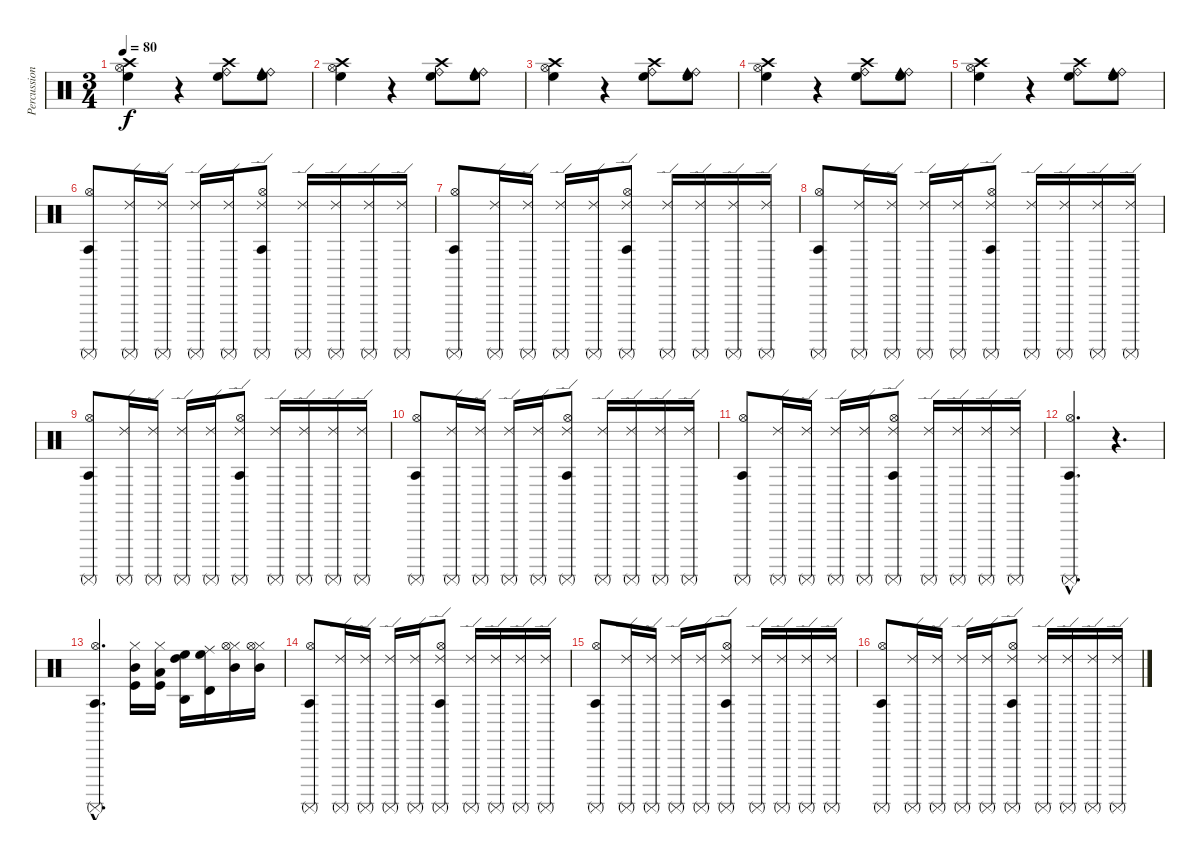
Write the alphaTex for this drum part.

\track ("Percussion" "Percussion") {instrument percussion}
\staff {score}
\articulation defaults
\ts (3 4)
\tempo 80
\clef neutral
\ks c
("High Floor Tom (hit)" "Hi-Hat (open)" "Crash high (hit)").4{dy f} r.4 ("Ride (bell)" "High Floor Tom (hit)" "Crash high (hit)").8 ("Ride (bell)" "Cowbell medium (hit)" "High Floor Tom (hit)").8 |
("High Floor Tom (hit)" "Hi-Hat (open)" "Crash high (hit)").4 r.4 ("Ride (bell)" "High Floor Tom (hit)" "Crash high (hit)").8 ("Ride (bell)" "Cowbell medium (hit)" "High Floor Tom (hit)").8 |
("High Floor Tom (hit)" "Hi-Hat (open)" "Crash high (hit)").4 r.4 ("Ride (bell)" "High Floor Tom (hit)" "Crash high (hit)").8 ("Ride (bell)" "Cowbell medium (hit)" "High Floor Tom (hit)").8 |
("High Floor Tom (hit)" "Hi-Hat (open)" "Crash high (hit)").4 r.4 ("Ride (bell)" "High Floor Tom (hit)" "Crash high (hit)").8 ("Ride (bell)" "Cowbell medium (hit)" "High Floor Tom (hit)").8 |
("High Floor Tom (hit)" "Hi-Hat (open)" "Crash high (hit)").4 r.4 ("Ride (bell)" "High Floor Tom (hit)" "Crash high (hit)").8 ("Ride (bell)" "Cowbell medium (hit)" "High Floor Tom (hit)").8 |
("Surdo (mute)" "Hi-Hat (open)" "Agogo tow (hit)").8 ("Surdo (mute)" "Ride (edge) 2").16 ("Surdo (mute)" "Ride (edge) 2").16 ("Surdo (mute)" "Ride (edge) 2").16 ("Surdo (mute)" "Ride (edge) 2").16 ("Surdo (mute)" "Hi-Hat (open)" "Agogo tow (hit)" "Ride (edge) 2").8 ("Surdo (mute)" "Ride (edge) 2").16 ("Surdo (mute)" "Ride (edge) 2").16 ("Surdo (mute)" "Ride (edge) 2").16 ("Surdo (mute)" "Ride (edge) 2").16 |
("Surdo (mute)" "Hi-Hat (open)" "Agogo tow (hit)").8 ("Surdo (mute)" "Ride (edge) 2").16 ("Surdo (mute)" "Ride (edge) 2").16 ("Surdo (mute)" "Ride (edge) 2").16 ("Surdo (mute)" "Ride (edge) 2").16 ("Surdo (mute)" "Hi-Hat (open)" "Agogo tow (hit)" "Ride (edge) 2").8 ("Surdo (mute)" "Ride (edge) 2").16 ("Surdo (mute)" "Ride (edge) 2").16 ("Surdo (mute)" "Ride (edge) 2").16 ("Surdo (mute)" "Ride (edge) 2").16 |
("Surdo (mute)" "Hi-Hat (open)" "Agogo tow (hit)").8 ("Surdo (mute)" "Ride (edge) 2").16 ("Surdo (mute)" "Ride (edge) 2").16 ("Surdo (mute)" "Ride (edge) 2").16 ("Surdo (mute)" "Ride (edge) 2").16 ("Surdo (mute)" "Hi-Hat (open)" "Agogo tow (hit)" "Ride (edge) 2").8 ("Surdo (mute)" "Ride (edge) 2").16 ("Surdo (mute)" "Ride (edge) 2").16 ("Surdo (mute)" "Ride (edge) 2").16 ("Surdo (mute)" "Ride (edge) 2").16 |
("Surdo (mute)" "Hi-Hat (open)" "Agogo tow (hit)").8 ("Surdo (mute)" "Ride (edge) 2").16 ("Surdo (mute)" "Ride (edge) 2").16 ("Surdo (mute)" "Ride (edge) 2").16 ("Surdo (mute)" "Ride (edge) 2").16 ("Surdo (mute)" "Hi-Hat (open)" "Agogo tow (hit)" "Ride (edge) 2").8 ("Surdo (mute)" "Ride (edge) 2").16 ("Surdo (mute)" "Ride (edge) 2").16 ("Surdo (mute)" "Ride (edge) 2").16 ("Surdo (mute)" "Ride (edge) 2").16 |
("Surdo (mute)" "Hi-Hat (open)" "Agogo tow (hit)").8 ("Surdo (mute)" "Ride (edge) 2").16 ("Surdo (mute)" "Ride (edge) 2").16 ("Surdo (mute)" "Ride (edge) 2").16 ("Surdo (mute)" "Ride (edge) 2").16 ("Surdo (mute)" "Hi-Hat (open)" "Agogo tow (hit)" "Ride (edge) 2").8 ("Surdo (mute)" "Ride (edge) 2").16 ("Surdo (mute)" "Ride (edge) 2").16 ("Surdo (mute)" "Ride (edge) 2").16 ("Surdo (mute)" "Ride (edge) 2").16 |
("Surdo (mute)" "Hi-Hat (open)" "Agogo tow (hit)").8 ("Surdo (mute)" "Ride (edge) 2").16 ("Surdo (mute)" "Ride (edge) 2").16 ("Surdo (mute)" "Ride (edge) 2").16 ("Surdo (mute)" "Ride (edge) 2").16 ("Surdo (mute)" "Hi-Hat (open)" "Agogo tow (hit)" "Ride (edge) 2").8 ("Surdo (mute)" "Ride (edge) 2").16 ("Surdo (mute)" "Ride (edge) 2").16 ("Surdo (mute)" "Ride (edge) 2").16 ("Surdo (mute)" "Ride (edge) 2").16 |
("Surdo (mute)"{hac} "Hi-Hat (open)"{hac} "Agogo tow (hit)"{hac}).4{d} r.4{d} |
("Surdo (mute)"{hac} "Hi-Hat (open)"{hac} "Agogo tow (hit)"{hac}).4{d} ("Hi-Hat (closed)" "Kick (hit)" "Mid Tom (hit)").16 ("Low Tom (hit)" "Kick (hit)" "Hi-Hat (closed)").16 ("Agogo high (hit)" "High Tom (hit)" "High Floor Tom (hit)").16 ("Timbale high (hit)" "Ride (middle)" "High Floor Tom (hit)").16 ("Hi-Hat (closed)" "Hi-Hat (open)" "Mid Tom (hit)").16 ("Hi-Hat (closed)" "Hi-Hat (open)" "Mid Tom (hit)").16 |
("Surdo (mute)" "Hi-Hat (open)" "Agogo tow (hit)").8 ("Surdo (mute)" "Ride (edge) 2").16 ("Surdo (mute)" "Ride (edge) 2").16 ("Surdo (mute)" "Ride (edge) 2").16 ("Surdo (mute)" "Ride (edge) 2").16 ("Surdo (mute)" "Hi-Hat (open)" "Agogo tow (hit)" "Ride (edge) 2").8 ("Surdo (mute)" "Ride (edge) 2").16 ("Surdo (mute)" "Ride (edge) 2").16 ("Surdo (mute)" "Ride (edge) 2").16 ("Surdo (mute)" "Ride (edge) 2").16 |
("Surdo (mute)" "Hi-Hat (open)" "Agogo tow (hit)").8 ("Surdo (mute)" "Ride (edge) 2").16 ("Surdo (mute)" "Ride (edge) 2").16 ("Surdo (mute)" "Ride (edge) 2").16 ("Surdo (mute)" "Ride (edge) 2").16 ("Surdo (mute)" "Hi-Hat (open)" "Agogo tow (hit)" "Ride (edge) 2").8 ("Surdo (mute)" "Ride (edge) 2").16 ("Surdo (mute)" "Ride (edge) 2").16 ("Surdo (mute)" "Ride (edge) 2").16 ("Surdo (mute)" "Ride (edge) 2").16 |
("Surdo (mute)" "Hi-Hat (open)" "Agogo tow (hit)").8 ("Surdo (mute)" "Ride (edge) 2").16 ("Surdo (mute)" "Ride (edge) 2").16 ("Surdo (mute)" "Ride (edge) 2").16 ("Surdo (mute)" "Ride (edge) 2").16 ("Surdo (mute)" "Hi-Hat (open)" "Agogo tow (hit)" "Ride (edge) 2").8 ("Surdo (mute)" "Ride (edge) 2").16 ("Surdo (mute)" "Ride (edge) 2").16 ("Surdo (mute)" "Ride (edge) 2").16 ("Surdo (mute)" "Ride (edge) 2").16
